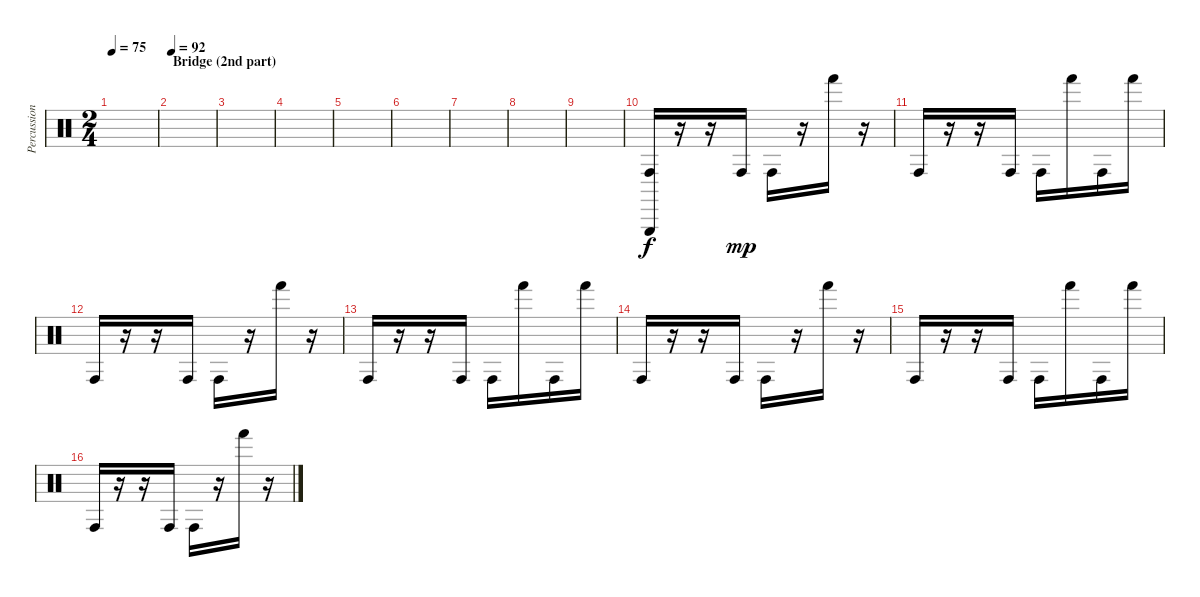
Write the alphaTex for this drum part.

\track ("Percussions" "Percussion") {instrument percussion}
\staff {score}
\articulation defaults
\ts (2 4)
\tempo 75
\clef neutral
\ks c
|
\section ("" "Bridge (2nd part)")
\tempo 92
|
|
|
|
|
|
|
|
("Conga high (hit)" "Triangle (hit)").16 r.16 r.16 "Conga high (hit)".16{dy mp} "Conga high (hit)".16 r.16 "Hand (hit)".16 r.16 |
"Conga high (hit)".16 r.16 r.16 "Conga high (hit)".16 "Conga high (hit)".16 "Hand (hit)".16 "Conga high (hit)".16 "Hand (hit)".16 |
"Conga high (hit)".16 r.16 r.16 "Conga high (hit)".16 "Conga high (hit)".16 r.16 "Hand (hit)".16 r.16 |
"Conga high (hit)".16 r.16 r.16 "Conga high (hit)".16 "Conga high (hit)".16 "Hand (hit)".16 "Conga high (hit)".16 "Hand (hit)".16 |
"Conga high (hit)".16 r.16 r.16 "Conga high (hit)".16 "Conga high (hit)".16 r.16 "Hand (hit)".16 r.16 |
"Conga high (hit)".16 r.16 r.16 "Conga high (hit)".16 "Conga high (hit)".16 "Hand (hit)".16 "Conga high (hit)".16 "Hand (hit)".16 |
"Conga high (hit)".16 r.16 r.16 "Conga high (hit)".16 "Conga high (hit)".16 r.16 "Hand (hit)".16 r.16
